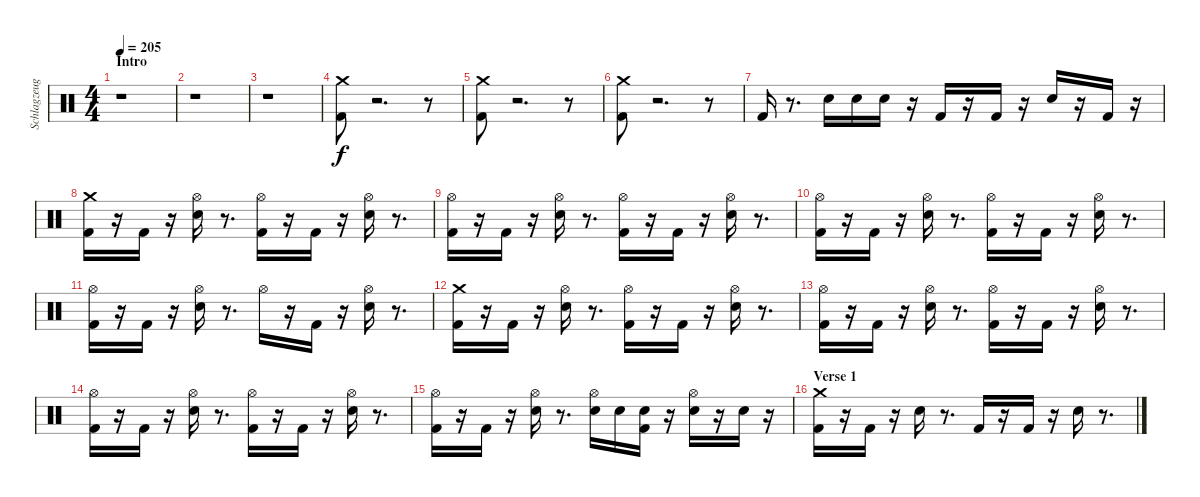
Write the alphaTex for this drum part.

\track ("Schlagzeug - Bela B." "Schlagzeug") {instrument percussion}
\staff {score}
\articulation defaults
\ts (4 4)
\section ("" "Intro")
\tempo 205
\clef neutral
\ks c
r.1{dy f} |
r.1 |
r.1 |
("Kick (hit) 2" "Crash medium (hit)").8 r.2{d} r.8 |
("Kick (hit) 2" "Crash medium (hit)").8 r.2{d} r.8 |
("Kick (hit) 2" "Crash medium (hit)").8 r.2{d} r.8 |
"Kick (hit) 2".16 r.8{d} "Electric Snare (hit)".16 "Electric Snare (hit)".16 "Electric Snare (hit)".16 r.16 "Kick (hit) 2".16 r.16 "Kick (hit) 2".16 r.16 "Electric Snare (hit)".16 r.16 "Kick (hit) 2".16 r.16 |
("Kick (hit) 2" "Crash medium (hit)").16 r.16 "Kick (hit) 2".16 r.16 ("Electric Snare (hit)" "Hi-Hat (open)").16 r.8{d} ("Hi-Hat (open)" "Kick (hit) 2").16 r.16 "Kick (hit) 2".16 r.16 ("Electric Snare (hit)" "Hi-Hat (open)").16 r.8{d} |
("Kick (hit) 2" "Hi-Hat (open)").16 r.16 "Kick (hit) 2".16 r.16 ("Electric Snare (hit)" "Hi-Hat (open)").16 r.8{d} ("Hi-Hat (open)" "Kick (hit) 2").16 r.16 "Kick (hit) 2".16 r.16 ("Electric Snare (hit)" "Hi-Hat (open)").16 r.8{d} |
("Kick (hit) 2" "Hi-Hat (open)").16 r.16 "Kick (hit) 2".16 r.16 ("Electric Snare (hit)" "Hi-Hat (open)").16 r.8{d} ("Hi-Hat (open)" "Kick (hit) 2").16 r.16 "Kick (hit) 2".16 r.16 ("Electric Snare (hit)" "Hi-Hat (open)").16 r.8{d} |
("Kick (hit) 2" "Hi-Hat (open)").16 r.16 "Kick (hit) 2".16 r.16 ("Electric Snare (hit)" "Hi-Hat (open)").16 r.8{d} "Hi-Hat (open)".16 r.16 "Kick (hit) 2".16 r.16 ("Electric Snare (hit)" "Hi-Hat (open)").16 r.8{d} |
("Kick (hit) 2" "Crash medium (hit)").16 r.16 "Kick (hit) 2".16 r.16 ("Electric Snare (hit)" "Hi-Hat (open)").16 r.8{d} ("Hi-Hat (open)" "Kick (hit) 2").16 r.16 "Kick (hit) 2".16 r.16 ("Electric Snare (hit)" "Hi-Hat (open)").16 r.8{d} |
("Kick (hit) 2" "Hi-Hat (open)").16 r.16 "Kick (hit) 2".16 r.16 ("Electric Snare (hit)" "Hi-Hat (open)").16 r.8{d} ("Hi-Hat (open)" "Kick (hit) 2").16 r.16 "Kick (hit) 2".16 r.16 ("Electric Snare (hit)" "Hi-Hat (open)").16 r.8{d} |
("Kick (hit) 2" "Hi-Hat (open)").16 r.16 "Kick (hit) 2".16 r.16 ("Electric Snare (hit)" "Hi-Hat (open)").16 r.8{d} ("Hi-Hat (open)" "Kick (hit) 2").16 r.16 "Kick (hit) 2".16 r.16 ("Electric Snare (hit)" "Hi-Hat (open)").16 r.8{d} |
("Kick (hit) 2" "Hi-Hat (open)").16 r.16 "Kick (hit) 2".16 r.16 ("Electric Snare (hit)" "Hi-Hat (open)").16 r.8{d} ("Hi-Hat (open)" "Electric Snare (hit)").16 "Electric Snare (hit)".16 ("Kick (hit) 2" "Electric Snare (hit)").16 r.16 ("Electric Snare (hit)" "Hi-Hat (open)").16 r.16 "Electric Snare (hit)".16 r.16 |
\section ("" "Verse 1")
("Kick (hit) 2" "Crash medium (hit)").16 r.16 "Kick (hit) 2".16 r.16 "Electric Snare (hit)".16 r.8{d} "Kick (hit) 2".16 r.16 "Kick (hit) 2".16 r.16 "Electric Snare (hit)".16 r.8{d}
